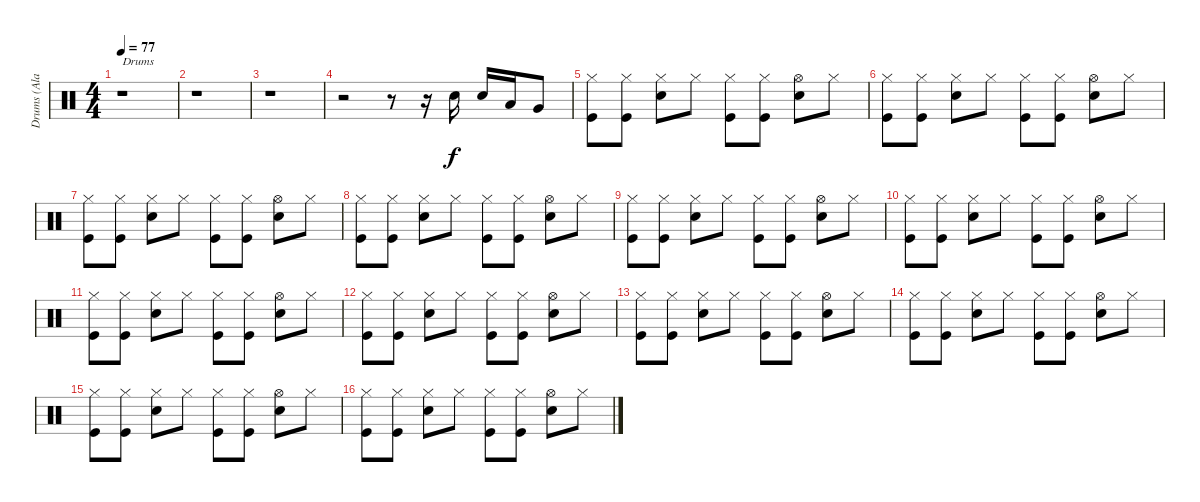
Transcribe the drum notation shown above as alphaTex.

\track ("Drums (Alan White)" "Drums (Ala") {instrument percussion}
\staff {score}
\articulation defaults
\ts (4 4)
\tempo 77
\clef neutral
\ks c
r.1{txt "Drums" dy f} |
r.1 |
r.1 |
r.2 r.8 r.16 "Snare (hit) 2".16 "Snare (hit) 2".16 "Low Tom (hit)".16 "Very Low Tom (hit)".8 |
("Hi-Hat (closed)" "Kick (hit)").8 ("Hi-Hat (closed)" "Kick (hit)").8 ("Hi-Hat (closed)" "Snare (hit) 2").8 "Hi-Hat (closed)".8 ("Hi-Hat (closed)" "Kick (hit)").8 ("Hi-Hat (closed)" "Kick (hit)").8 ("Hi-Hat (open)" "Snare (hit) 2").8 "Hi-Hat (closed)".8 |
("Hi-Hat (closed)" "Kick (hit)").8 ("Hi-Hat (closed)" "Kick (hit)").8 ("Hi-Hat (closed)" "Snare (hit) 2").8 "Hi-Hat (closed)".8 ("Hi-Hat (closed)" "Kick (hit)").8 ("Hi-Hat (closed)" "Kick (hit)").8 ("Hi-Hat (open)" "Snare (hit) 2").8 "Hi-Hat (closed)".8 |
("Hi-Hat (closed)" "Kick (hit)").8 ("Hi-Hat (closed)" "Kick (hit)").8 ("Hi-Hat (closed)" "Snare (hit) 2").8 "Hi-Hat (closed)".8 ("Hi-Hat (closed)" "Kick (hit)").8 ("Hi-Hat (closed)" "Kick (hit)").8 ("Hi-Hat (open)" "Snare (hit) 2").8 "Hi-Hat (closed)".8 |
("Hi-Hat (closed)" "Kick (hit)").8 ("Hi-Hat (closed)" "Kick (hit)").8 ("Hi-Hat (closed)" "Snare (hit) 2").8 "Hi-Hat (closed)".8 ("Hi-Hat (closed)" "Kick (hit)").8 ("Hi-Hat (closed)" "Kick (hit)").8 ("Hi-Hat (open)" "Snare (hit) 2").8 "Hi-Hat (closed)".8 |
("Hi-Hat (closed)" "Kick (hit)").8 ("Hi-Hat (closed)" "Kick (hit)").8 ("Hi-Hat (closed)" "Snare (hit) 2").8 "Hi-Hat (closed)".8 ("Hi-Hat (closed)" "Kick (hit)").8 ("Hi-Hat (closed)" "Kick (hit)").8 ("Hi-Hat (open)" "Snare (hit) 2").8 "Hi-Hat (closed)".8 |
("Hi-Hat (closed)" "Kick (hit)").8 ("Hi-Hat (closed)" "Kick (hit)").8 ("Hi-Hat (closed)" "Snare (hit) 2").8 "Hi-Hat (closed)".8 ("Hi-Hat (closed)" "Kick (hit)").8 ("Hi-Hat (closed)" "Kick (hit)").8 ("Hi-Hat (open)" "Snare (hit) 2").8 "Hi-Hat (closed)".8 |
("Hi-Hat (closed)" "Kick (hit)").8 ("Hi-Hat (closed)" "Kick (hit)").8 ("Hi-Hat (closed)" "Snare (hit) 2").8 "Hi-Hat (closed)".8 ("Hi-Hat (closed)" "Kick (hit)").8 ("Hi-Hat (closed)" "Kick (hit)").8 ("Hi-Hat (open)" "Snare (hit) 2").8 "Hi-Hat (closed)".8 |
("Hi-Hat (closed)" "Kick (hit)").8 ("Hi-Hat (closed)" "Kick (hit)").8 ("Hi-Hat (closed)" "Snare (hit) 2").8 "Hi-Hat (closed)".8 ("Hi-Hat (closed)" "Kick (hit)").8 ("Hi-Hat (closed)" "Kick (hit)").8 ("Hi-Hat (open)" "Snare (hit) 2").8 "Hi-Hat (closed)".8 |
("Hi-Hat (closed)" "Kick (hit)").8 ("Hi-Hat (closed)" "Kick (hit)").8 ("Hi-Hat (closed)" "Snare (hit) 2").8 "Hi-Hat (closed)".8 ("Hi-Hat (closed)" "Kick (hit)").8 ("Hi-Hat (closed)" "Kick (hit)").8 ("Hi-Hat (open)" "Snare (hit) 2").8 "Hi-Hat (closed)".8 |
("Hi-Hat (closed)" "Kick (hit)").8 ("Hi-Hat (closed)" "Kick (hit)").8 ("Hi-Hat (closed)" "Snare (hit) 2").8 "Hi-Hat (closed)".8 ("Hi-Hat (closed)" "Kick (hit)").8 ("Hi-Hat (closed)" "Kick (hit)").8 ("Hi-Hat (open)" "Snare (hit) 2").8 "Hi-Hat (closed)".8 |
("Hi-Hat (closed)" "Kick (hit)").8 ("Hi-Hat (closed)" "Kick (hit)").8 ("Hi-Hat (closed)" "Snare (hit) 2").8 "Hi-Hat (closed)".8 ("Hi-Hat (closed)" "Kick (hit)").8 ("Hi-Hat (closed)" "Kick (hit)").8 ("Hi-Hat (open)" "Snare (hit) 2").8 "Hi-Hat (closed)".8 |
("Hi-Hat (closed)" "Kick (hit)").8 ("Hi-Hat (closed)" "Kick (hit)").8 ("Hi-Hat (closed)" "Snare (hit) 2").8 "Hi-Hat (closed)".8 ("Hi-Hat (closed)" "Kick (hit)").8 ("Hi-Hat (closed)" "Kick (hit)").8 ("Hi-Hat (open)" "Snare (hit) 2").8 "Hi-Hat (closed)".8
